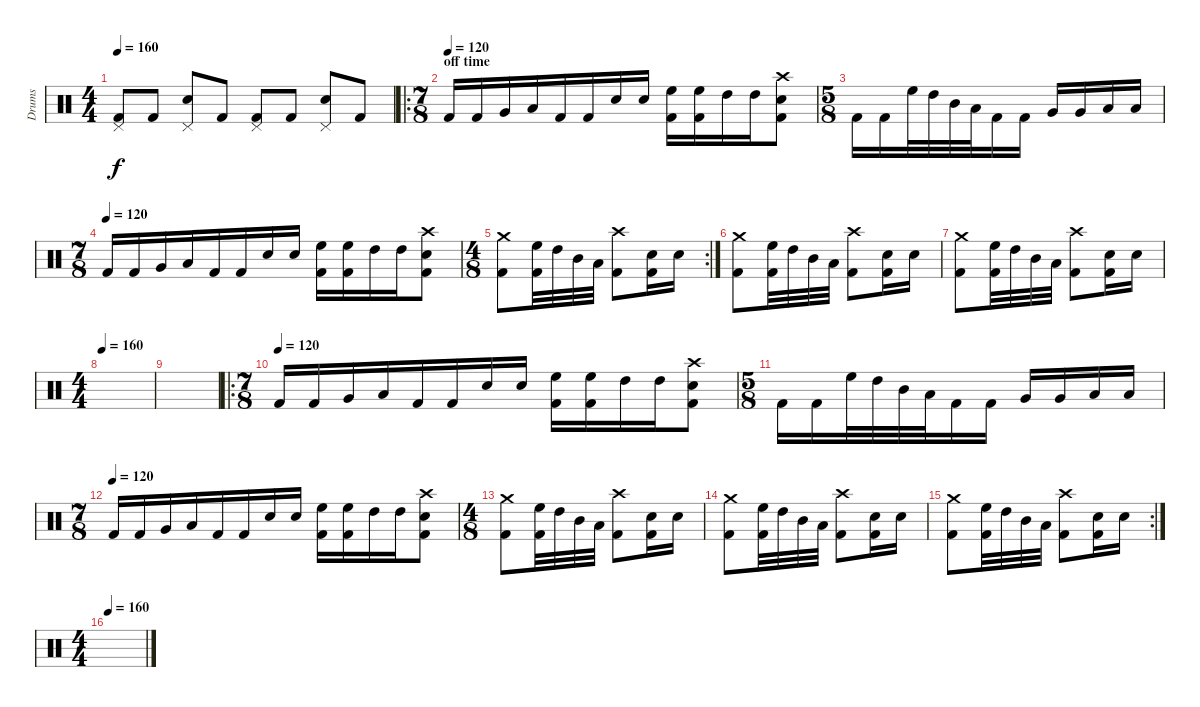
\track ("Drums" "Drums") {instrument percussion}
\staff {score}
\articulation defaults
\ts (4 4)
\tempo 160
\clef neutral
\ks c
("Pedal Hi-Hat (hit)" "Kick (hit) 2").8{dy f} "Kick (hit) 2".8 ("Pedal Hi-Hat (hit)" "Electric Snare (hit)").8 "Kick (hit) 2".8 ("Pedal Hi-Hat (hit)" "Kick (hit) 2").8 "Kick (hit) 2".8 ("Pedal Hi-Hat (hit)" "Electric Snare (hit)").8 "Kick (hit) 2".8 |
\ro
\ts (7 8)
\section ("" "off time")
\tempo (120)
"Kick (hit) 2".16 "Kick (hit) 2".16 "Very Low Tom (hit)".16 "Low Floor Tom (hit)".16 "Kick (hit) 2".16 "Kick (hit) 2".16 "Electric Snare (hit)".16 "Electric Snare (hit)".16 ("High Floor Tom (hit)" "Kick (hit) 2").16 ("High Floor Tom (hit)" "Kick (hit) 2").16 "High Tom (hit)".16 "High Tom (hit)".16 ("Crash high (hit)" "Electric Snare (hit)" "Kick (hit) 2").8 |
\ts (5 8)
"Kick (hit) 2".16 "Kick (hit) 2".16 "High Floor Tom (hit)".32 "High Tom (hit)".32 "Mid Tom (hit)".32 "Low Tom (hit)".32 "Kick (hit) 2".16 "Kick (hit) 2".16 "Very Low Tom (hit)".16 "Very Low Tom (hit)".16 "Low Floor Tom (hit)".16 "Low Floor Tom (hit)".16 |
\ts (7 8)
\tempo (120)
"Kick (hit) 2".16 "Kick (hit) 2".16 "Very Low Tom (hit)".16 "Low Floor Tom (hit)".16 "Kick (hit) 2".16 "Kick (hit) 2".16 "Electric Snare (hit)".16 "Electric Snare (hit)".16 ("High Floor Tom (hit)" "Kick (hit) 2").16 ("High Floor Tom (hit)" "Kick (hit) 2").16 "High Tom (hit)".16 "High Tom (hit)".16 ("Crash high (hit)" "Electric Snare (hit)" "Kick (hit) 2").8 |
\rc 2
\ts (4 8)
("Crash medium (hit)" "Kick (hit) 2").8 ("High Floor Tom (hit)" "Kick (hit) 2").32 "High Tom (hit)".32 "Mid Tom (hit)".32 "Low Tom (hit)".32 ("Crash high (hit)" "Kick (hit) 2").8 ("Electric Snare (hit)" "Kick (hit) 2").16 "Electric Snare (hit)".16 |
("Crash medium (hit)" "Kick (hit) 2").8 ("High Floor Tom (hit)" "Kick (hit) 2").32 "High Tom (hit)".32 "Mid Tom (hit)".32 "Low Tom (hit)".32 ("Crash high (hit)" "Kick (hit) 2").8 ("Electric Snare (hit)" "Kick (hit) 2").16 "Electric Snare (hit)".16 |
("Crash medium (hit)" "Kick (hit) 2").8 ("High Floor Tom (hit)" "Kick (hit) 2").32 "High Tom (hit)".32 "Mid Tom (hit)".32 "Low Tom (hit)".32 ("Crash high (hit)" "Kick (hit) 2").8 ("Electric Snare (hit)" "Kick (hit) 2").16 "Electric Snare (hit)".16 |
\ts (4 4)
\tempo 160
|
|
\ro
\ts (7 8)
\tempo (120)
"Kick (hit) 2".16 "Kick (hit) 2".16 "Very Low Tom (hit)".16 "Low Floor Tom (hit)".16 "Kick (hit) 2".16 "Kick (hit) 2".16 "Electric Snare (hit)".16 "Electric Snare (hit)".16 ("High Floor Tom (hit)" "Kick (hit) 2").16 ("High Floor Tom (hit)" "Kick (hit) 2").16 "High Tom (hit)".16 "High Tom (hit)".16 ("Crash high (hit)" "Electric Snare (hit)" "Kick (hit) 2").8 |
\ts (5 8)
"Kick (hit) 2".16 "Kick (hit) 2".16 "High Floor Tom (hit)".32 "High Tom (hit)".32 "Mid Tom (hit)".32 "Low Tom (hit)".32 "Kick (hit) 2".16 "Kick (hit) 2".16 "Very Low Tom (hit)".16 "Very Low Tom (hit)".16 "Low Floor Tom (hit)".16 "Low Floor Tom (hit)".16 |
\ts (7 8)
\tempo (120)
"Kick (hit) 2".16 "Kick (hit) 2".16 "Very Low Tom (hit)".16 "Low Floor Tom (hit)".16 "Kick (hit) 2".16 "Kick (hit) 2".16 "Electric Snare (hit)".16 "Electric Snare (hit)".16 ("High Floor Tom (hit)" "Kick (hit) 2").16 ("High Floor Tom (hit)" "Kick (hit) 2").16 "High Tom (hit)".16 "High Tom (hit)".16 ("Crash high (hit)" "Electric Snare (hit)" "Kick (hit) 2").8 |
\ts (4 8)
("Crash medium (hit)" "Kick (hit) 2").8 ("High Floor Tom (hit)" "Kick (hit) 2").32 "High Tom (hit)".32 "Mid Tom (hit)".32 "Low Tom (hit)".32 ("Crash high (hit)" "Kick (hit) 2").8 ("Electric Snare (hit)" "Kick (hit) 2").16 "Electric Snare (hit)".16 |
("Crash medium (hit)" "Kick (hit) 2").8 ("High Floor Tom (hit)" "Kick (hit) 2").32 "High Tom (hit)".32 "Mid Tom (hit)".32 "Low Tom (hit)".32 ("Crash high (hit)" "Kick (hit) 2").8 ("Electric Snare (hit)" "Kick (hit) 2").16 "Electric Snare (hit)".16 |
\rc 2
("Crash medium (hit)" "Kick (hit) 2").8 ("High Floor Tom (hit)" "Kick (hit) 2").32 "High Tom (hit)".32 "Mid Tom (hit)".32 "Low Tom (hit)".32 ("Crash high (hit)" "Kick (hit) 2").8 ("Electric Snare (hit)" "Kick (hit) 2").16 "Electric Snare (hit)".16 |
\ts (4 4)
\tempo 160
